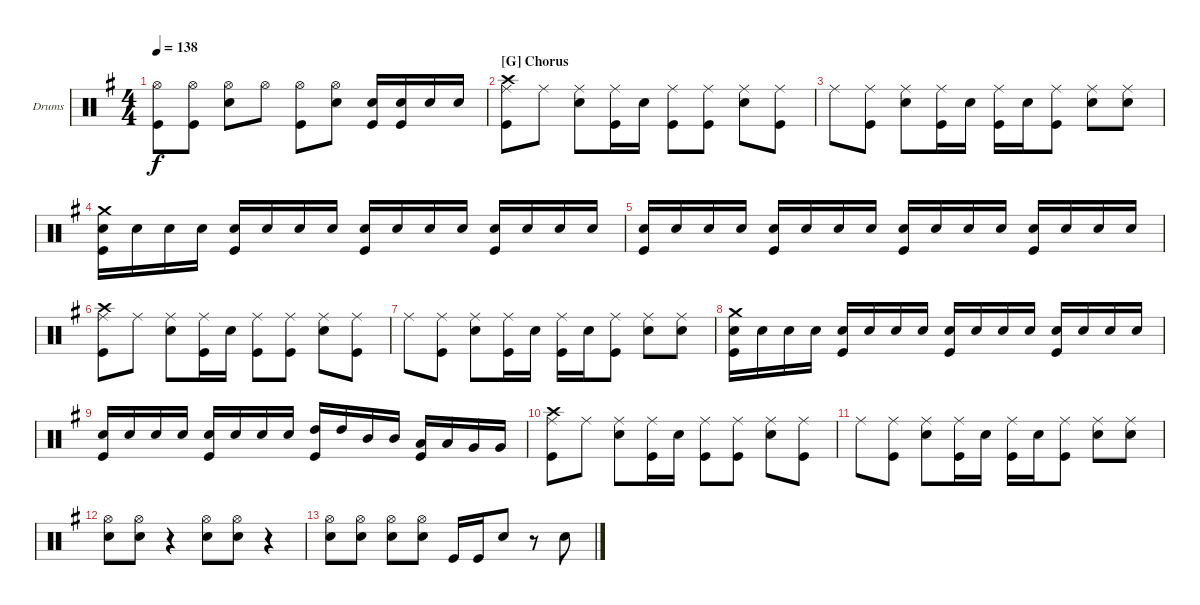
\defaultSystemsLayout 4
\bracketExtendMode groupsimilarinstruments
\firstSystemTrackNameOrientation horizontal
\otherSystemsTrackNameOrientation horizontal
\track ("Drumkit" "Drums") {instrument percussion}
\staff {score}
\articulation defaults
\ts (4 4)
\tempo 138
\clef neutral
\scale
1.04288
\ks g
("Hi-Hat (open)" "Kick (hit)").8{dy f} ("Hi-Hat (open)" "Kick (hit)").8 ("Hi-Hat (open)" "Snare (hit) 2").8 "Hi-Hat (open)".8 ("Hi-Hat (open)" "Kick (hit)").8 ("Hi-Hat (open)" "Snare (hit) 2").8 ("Snare (hit) 2" "Kick (hit)").16 ("Snare (hit) 2" "Kick (hit)").16 "Snare (hit) 2".16 "Snare (hit) 2".16 |
\section ("G" "Chorus")
\scale
0.957125 ("Ride (middle)" "Crash high (hit)" "Kick (hit)").8 "Ride (middle)".8 ("Ride (middle)" "Snare (hit) 2").8 ("Ride (middle)" "Kick (hit)").16 "Snare (hit) 2".16 ("Ride (middle)" "Kick (hit)").8 ("Ride (middle)" "Kick (hit)").8 ("Ride (middle)" "Snare (hit) 2").8 ("Ride (middle)" "Kick (hit)").8 |
\scale
1.04288 "Ride (middle)".8 ("Ride (middle)" "Kick (hit)").8 ("Ride (middle)" "Snare (hit) 2").8 ("Ride (middle)" "Kick (hit)").16 "Snare (hit) 2".16 ("Ride (middle)" "Kick (hit)").16 "Snare (hit) 2".16 ("Ride (middle)" "Kick (hit)").8 ("Ride (middle)" "Snare (hit) 2").8 ("Ride (middle)" "Snare (hit) 2").8 |
\scale
0.957125 ("Crash medium (hit)" "Snare (hit) 2" "Kick (hit)").16 "Snare (hit) 2".16 "Snare (hit) 2".16 "Snare (hit) 2".16 ("Snare (hit) 2" "Kick (hit)").16 "Snare (hit) 2".16 "Snare (hit) 2".16 "Snare (hit) 2".16 ("Snare (hit) 2" "Kick (hit)").16 "Snare (hit) 2".16 "Snare (hit) 2".16 "Snare (hit) 2".16 ("Snare (hit) 2" "Kick (hit)").16 "Snare (hit) 2".16 "Snare (hit) 2".16 "Snare (hit) 2".16 |
\scale
1.04288 ("Snare (hit) 2" "Kick (hit)").16 "Snare (hit) 2".16 "Snare (hit) 2".16 "Snare (hit) 2".16 ("Snare (hit) 2" "Kick (hit)").16 "Snare (hit) 2".16 "Snare (hit) 2".16 "Snare (hit) 2".16 ("Snare (hit) 2" "Kick (hit)").16 "Snare (hit) 2".16 "Snare (hit) 2".16 "Snare (hit) 2".16 ("Snare (hit) 2" "Kick (hit)").16 "Snare (hit) 2".16 "Snare (hit) 2".16 "Snare (hit) 2".16 |
\scale
0.957125 ("Ride (middle)" "Crash high (hit)" "Kick (hit)").8 "Ride (middle)".8 ("Ride (middle)" "Snare (hit) 2").8 ("Ride (middle)" "Kick (hit)").16 "Snare (hit) 2".16 ("Ride (middle)" "Kick (hit)").8 ("Ride (middle)" "Kick (hit)").8 ("Ride (middle)" "Snare (hit) 2").8 ("Ride (middle)" "Kick (hit)").8 |
\scale
1.04288 "Ride (middle)".8 ("Ride (middle)" "Kick (hit)").8 ("Ride (middle)" "Snare (hit) 2").8 ("Ride (middle)" "Kick (hit)").16 "Snare (hit) 2".16 ("Ride (middle)" "Kick (hit)").16 "Snare (hit) 2".16 ("Ride (middle)" "Kick (hit)").8 ("Ride (middle)" "Snare (hit) 2").8 ("Ride (middle)" "Snare (hit) 2").8 |
\scale
0.957125 ("Crash medium (hit)" "Snare (hit) 2" "Kick (hit)").16 "Snare (hit) 2".16 "Snare (hit) 2".16 "Snare (hit) 2".16 ("Snare (hit) 2" "Kick (hit)").16 "Snare (hit) 2".16 "Snare (hit) 2".16 "Snare (hit) 2".16 ("Snare (hit) 2" "Kick (hit)").16 "Snare (hit) 2".16 "Snare (hit) 2".16 "Snare (hit) 2".16 ("Snare (hit) 2" "Kick (hit)").16 "Snare (hit) 2".16 "Snare (hit) 2".16 "Snare (hit) 2".16 |
\scale
1.04288 ("Snare (hit) 2" "Kick (hit)").16 "Snare (hit) 2".16 "Snare (hit) 2".16 "Snare (hit) 2".16 ("Snare (hit) 2" "Kick (hit)").16 "Snare (hit) 2".16 "Snare (hit) 2".16 "Snare (hit) 2".16 ("High Tom (hit)" "Kick (hit)").16 "High Tom (hit)".16 "Mid Tom (hit)".16 "Mid Tom (hit)".16 ("Low Tom (hit)" "Kick (hit)").16 "Low Tom (hit)".16 "Very Low Tom (hit)".16 "Very Low Tom (hit)".16 |
\scale
0.957125 ("Ride (middle)" "Crash high (hit)" "Kick (hit)").8 "Ride (middle)".8 ("Ride (middle)" "Snare (hit) 2").8 ("Ride (middle)" "Kick (hit)").16 "Snare (hit) 2".16 ("Ride (middle)" "Kick (hit)").8 ("Ride (middle)" "Kick (hit)").8 ("Ride (middle)" "Snare (hit) 2").8 ("Ride (middle)" "Kick (hit)").8 |
\scale
1.04288 "Ride (middle)".8 ("Ride (middle)" "Kick (hit)").8 ("Ride (middle)" "Snare (hit) 2").8 ("Ride (middle)" "Kick (hit)").16 "Snare (hit) 2".16 ("Ride (middle)" "Kick (hit)").16 "Snare (hit) 2".16 ("Ride (middle)" "Kick (hit)").8 ("Ride (middle)" "Snare (hit) 2").8 ("Ride (middle)" "Snare (hit) 2").8 |
\scale
0.957125 ("Hi-Hat (open)" "Snare (hit) 2").8 ("Hi-Hat (open)" "Snare (hit) 2").8 r.4 ("Hi-Hat (open)" "Snare (hit) 2").8 ("Hi-Hat (open)" "Snare (hit) 2").8 r.4 |
("Hi-Hat (open)" "Snare (hit) 2").8 ("Hi-Hat (open)" "Snare (hit) 2").8 ("Hi-Hat (open)" "Snare (hit) 2").8 ("Hi-Hat (open)" "Snare (hit) 2").8 "Kick (hit)".16 "Kick (hit)".16 "Snare (hit) 2".8 r.8 "Snare (hit) 2".8
